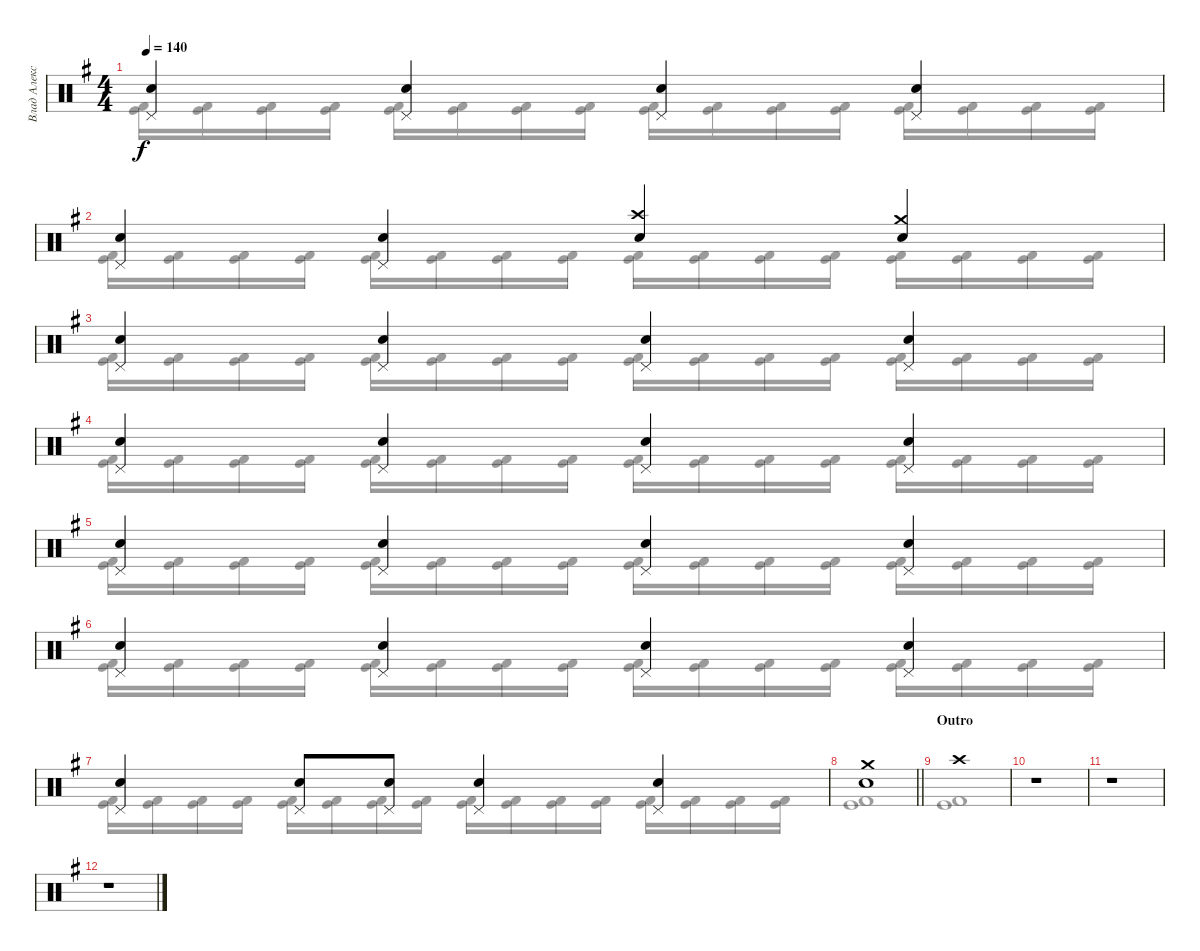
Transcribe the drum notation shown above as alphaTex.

\track ("Влад Алексеенко" "Влад Алекс") {instrument percussion}
\staff {score}
\articulation defaults
\voice
\ts (4 4)
\tempo 140
\clef neutral
\ks g
("Electric Snare (hit)" "Pedal Hi-Hat (hit)").4{dy f} ("Electric Snare (hit)" "Pedal Hi-Hat (hit)").4 ("Electric Snare (hit)" "Pedal Hi-Hat (hit)").4 ("Electric Snare (hit)" "Pedal Hi-Hat (hit)").4 |
("Electric Snare (hit)" "Pedal Hi-Hat (hit)").4 ("Electric Snare (hit)" "Pedal Hi-Hat (hit)").4 ("Electric Snare (hit)" "Crash high (hit)").4 ("Electric Snare (hit)" "Crash medium (hit)").4 |
("Electric Snare (hit)" "Pedal Hi-Hat (hit)").4 ("Electric Snare (hit)" "Pedal Hi-Hat (hit)").4 ("Electric Snare (hit)" "Pedal Hi-Hat (hit)").4 ("Electric Snare (hit)" "Pedal Hi-Hat (hit)").4 |
("Electric Snare (hit)" "Pedal Hi-Hat (hit)").4 ("Electric Snare (hit)" "Pedal Hi-Hat (hit)").4 ("Electric Snare (hit)" "Pedal Hi-Hat (hit)").4 ("Electric Snare (hit)" "Pedal Hi-Hat (hit)").4 |
("Electric Snare (hit)" "Pedal Hi-Hat (hit)").4 ("Electric Snare (hit)" "Pedal Hi-Hat (hit)").4 ("Electric Snare (hit)" "Pedal Hi-Hat (hit)").4 ("Electric Snare (hit)" "Pedal Hi-Hat (hit)").4 |
("Electric Snare (hit)" "Pedal Hi-Hat (hit)").4 ("Electric Snare (hit)" "Pedal Hi-Hat (hit)").4 ("Electric Snare (hit)" "Pedal Hi-Hat (hit)").4 ("Electric Snare (hit)" "Pedal Hi-Hat (hit)").4 |
("Electric Snare (hit)" "Pedal Hi-Hat (hit)").4 ("Electric Snare (hit)" "Pedal Hi-Hat (hit)").8 ("Electric Snare (hit)" "Pedal Hi-Hat (hit)").8 ("Electric Snare (hit)" "Pedal Hi-Hat (hit)").4 ("Electric Snare (hit)" "Pedal Hi-Hat (hit)").4 |
\barLineRight lightlight
("Electric Snare (hit)" "Crash medium (hit)").1 |
\section ("" "Outro")
"Crash high (hit)".1 |
r.1 |
r.1 |
r.1
\voice
\clef neutral
\ottava regular
\simile none
\ks g
("Kick (hit) 2" "Kick (hit)").16{dy f} ("Kick (hit) 2" "Kick (hit)").16 ("Kick (hit) 2" "Kick (hit)").16 ("Kick (hit) 2" "Kick (hit)").16 ("Kick (hit) 2" "Kick (hit)").16 ("Kick (hit) 2" "Kick (hit)").16 ("Kick (hit) 2" "Kick (hit)").16 ("Kick (hit) 2" "Kick (hit)").16 ("Kick (hit) 2" "Kick (hit)").16 ("Kick (hit) 2" "Kick (hit)").16 ("Kick (hit) 2" "Kick (hit)").16 ("Kick (hit) 2" "Kick (hit)").16 ("Kick (hit) 2" "Kick (hit)").16 ("Kick (hit) 2" "Kick (hit)").16 ("Kick (hit) 2" "Kick (hit)").16 ("Kick (hit) 2" "Kick (hit)").16 |
("Kick (hit) 2" "Kick (hit)").16 ("Kick (hit) 2" "Kick (hit)").16 ("Kick (hit) 2" "Kick (hit)").16 ("Kick (hit) 2" "Kick (hit)").16 ("Kick (hit) 2" "Kick (hit)").16 ("Kick (hit) 2" "Kick (hit)").16 ("Kick (hit) 2" "Kick (hit)").16 ("Kick (hit) 2" "Kick (hit)").16 ("Kick (hit) 2" "Kick (hit)").16 ("Kick (hit) 2" "Kick (hit)").16 ("Kick (hit) 2" "Kick (hit)").16 ("Kick (hit) 2" "Kick (hit)").16 ("Kick (hit) 2" "Kick (hit)").16 ("Kick (hit) 2" "Kick (hit)").16 ("Kick (hit) 2" "Kick (hit)").16 ("Kick (hit) 2" "Kick (hit)").16 |
("Kick (hit) 2" "Kick (hit)").16 ("Kick (hit) 2" "Kick (hit)").16 ("Kick (hit) 2" "Kick (hit)").16 ("Kick (hit) 2" "Kick (hit)").16 ("Kick (hit) 2" "Kick (hit)").16 ("Kick (hit) 2" "Kick (hit)").16 ("Kick (hit) 2" "Kick (hit)").16 ("Kick (hit) 2" "Kick (hit)").16 ("Kick (hit) 2" "Kick (hit)").16 ("Kick (hit) 2" "Kick (hit)").16 ("Kick (hit) 2" "Kick (hit)").16 ("Kick (hit) 2" "Kick (hit)").16 ("Kick (hit) 2" "Kick (hit)").16 ("Kick (hit) 2" "Kick (hit)").16 ("Kick (hit) 2" "Kick (hit)").16 ("Kick (hit) 2" "Kick (hit)").16 |
("Kick (hit) 2" "Kick (hit)").16 ("Kick (hit) 2" "Kick (hit)").16 ("Kick (hit) 2" "Kick (hit)").16 ("Kick (hit) 2" "Kick (hit)").16 ("Kick (hit) 2" "Kick (hit)").16 ("Kick (hit) 2" "Kick (hit)").16 ("Kick (hit) 2" "Kick (hit)").16 ("Kick (hit) 2" "Kick (hit)").16 ("Kick (hit) 2" "Kick (hit)").16 ("Kick (hit) 2" "Kick (hit)").16 ("Kick (hit) 2" "Kick (hit)").16 ("Kick (hit) 2" "Kick (hit)").16 ("Kick (hit) 2" "Kick (hit)").16 ("Kick (hit) 2" "Kick (hit)").16 ("Kick (hit) 2" "Kick (hit)").16 ("Kick (hit) 2" "Kick (hit)").16 |
("Kick (hit) 2" "Kick (hit)").16 ("Kick (hit) 2" "Kick (hit)").16 ("Kick (hit) 2" "Kick (hit)").16 ("Kick (hit) 2" "Kick (hit)").16 ("Kick (hit) 2" "Kick (hit)").16 ("Kick (hit) 2" "Kick (hit)").16 ("Kick (hit) 2" "Kick (hit)").16 ("Kick (hit) 2" "Kick (hit)").16 ("Kick (hit) 2" "Kick (hit)").16 ("Kick (hit) 2" "Kick (hit)").16 ("Kick (hit) 2" "Kick (hit)").16 ("Kick (hit) 2" "Kick (hit)").16 ("Kick (hit) 2" "Kick (hit)").16 ("Kick (hit) 2" "Kick (hit)").16 ("Kick (hit) 2" "Kick (hit)").16 ("Kick (hit) 2" "Kick (hit)").16 |
("Kick (hit) 2" "Kick (hit)").16 ("Kick (hit) 2" "Kick (hit)").16 ("Kick (hit) 2" "Kick (hit)").16 ("Kick (hit) 2" "Kick (hit)").16 ("Kick (hit) 2" "Kick (hit)").16 ("Kick (hit) 2" "Kick (hit)").16 ("Kick (hit) 2" "Kick (hit)").16 ("Kick (hit) 2" "Kick (hit)").16 ("Kick (hit) 2" "Kick (hit)").16 ("Kick (hit) 2" "Kick (hit)").16 ("Kick (hit) 2" "Kick (hit)").16 ("Kick (hit) 2" "Kick (hit)").16 ("Kick (hit) 2" "Kick (hit)").16 ("Kick (hit) 2" "Kick (hit)").16 ("Kick (hit) 2" "Kick (hit)").16 ("Kick (hit) 2" "Kick (hit)").16 |
("Kick (hit) 2" "Kick (hit)").16 ("Kick (hit) 2" "Kick (hit)").16 ("Kick (hit) 2" "Kick (hit)").16 ("Kick (hit) 2" "Kick (hit)").16 ("Kick (hit) 2" "Kick (hit)").16 ("Kick (hit) 2" "Kick (hit)").16 ("Kick (hit) 2" "Kick (hit)").16 ("Kick (hit) 2" "Kick (hit)").16 ("Kick (hit) 2" "Kick (hit)").16 ("Kick (hit) 2" "Kick (hit)").16 ("Kick (hit) 2" "Kick (hit)").16 ("Kick (hit) 2" "Kick (hit)").16 ("Kick (hit) 2" "Kick (hit)").16 ("Kick (hit) 2" "Kick (hit)").16 ("Kick (hit) 2" "Kick (hit)").16 ("Kick (hit) 2" "Kick (hit)").16 |
\barLineRight lightlight
("Kick (hit) 2" "Kick (hit)").1 |
("Kick (hit) 2" "Kick (hit)").1 |
|
|
